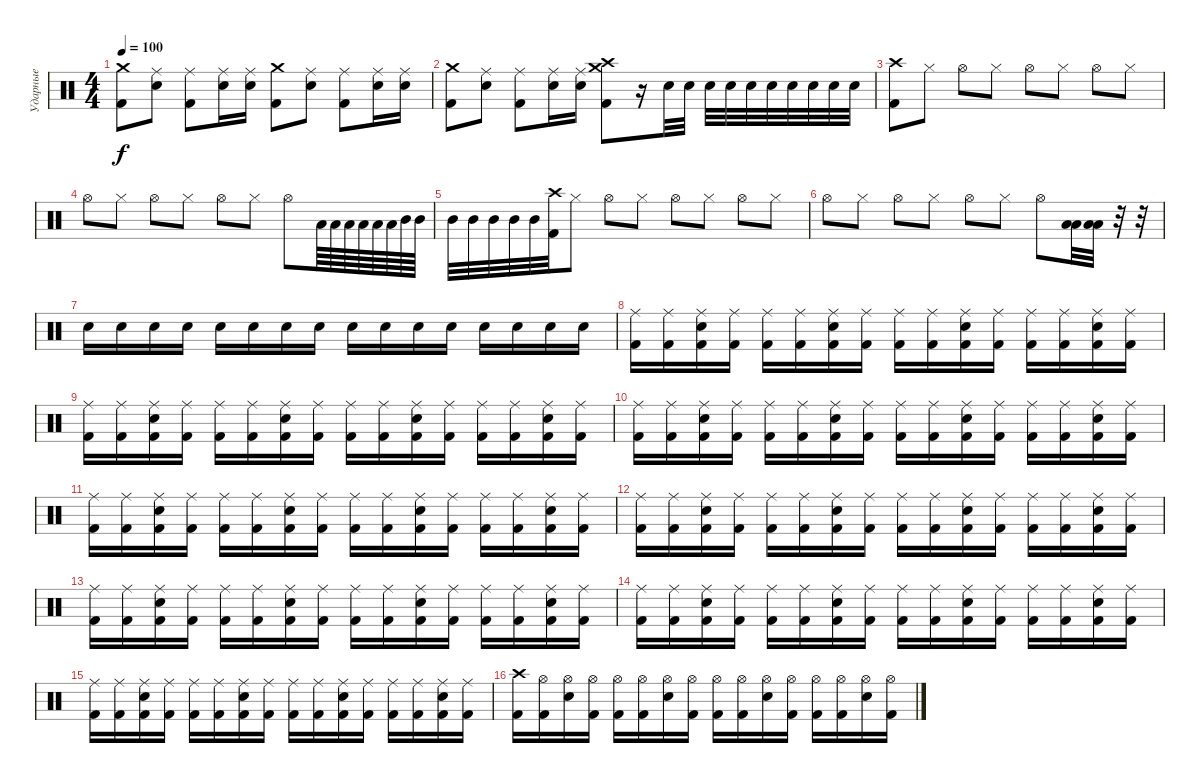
\track ("Ударные" "Ударные") {instrument percussion}
\staff {score}
\articulation defaults
\ts (4 4)
\tempo 100
\clef neutral
\ks c
("Kick (hit) 2" "Crash medium (hit)").8{dy f} ("Electric Snare (hit)" "Ride (middle)").8 ("Kick (hit) 2" "Ride (middle)").8 ("Electric Snare (hit)" "Ride (middle)").16 ("Electric Snare (hit)" "Ride (middle)").16 ("Kick (hit) 2" "Crash medium (hit)").8 ("Electric Snare (hit)" "Ride (middle)").8 ("Kick (hit) 2" "Ride (middle)").8 ("Electric Snare (hit)" "Ride (middle)").16 ("Electric Snare (hit)" "Ride (middle)").16 |
("Kick (hit) 2" "Crash medium (hit)").8 ("Electric Snare (hit)" "Ride (middle)").8 ("Kick (hit) 2" "Ride (middle)").8 ("Electric Snare (hit)" "Ride (middle)").16 ("Electric Snare (hit)" "Ride (middle)").16 ("Kick (hit) 2" "Crash high (hit)" "Crash medium (hit)").8 r.16 "Electric Snare (hit)".32 "Electric Snare (hit)".32 "Electric Snare (hit)".32 "Electric Snare (hit)".32 "Electric Snare (hit)".32 "Electric Snare (hit)".32 "Electric Snare (hit)".32 "Electric Snare (hit)".32 "Electric Snare (hit)".32 "Electric Snare (hit)".32 |
("Crash high (hit)" "Kick (hit) 2").8 "Hi-Hat (closed)".8 "Hi-Hat (open)".8 "Hi-Hat (closed)".8 "Hi-Hat (open)".8 "Hi-Hat (closed)".8 "Hi-Hat (open)".8 "Hi-Hat (closed)".8 |
"Hi-Hat (open)".8 "Hi-Hat (closed)".8 "Hi-Hat (open)".8 "Hi-Hat (closed)".8 "Hi-Hat (open)".8 "Hi-Hat (closed)".8 "Hi-Hat (open)".8 "Low Tom (hit)".64 "Low Tom (hit)".64 "Low Tom (hit)".64 "Low Tom (hit)".64 "Low Tom (hit)".64 "Low Tom (hit)".64 "Mid Tom (hit)".64 "Mid Tom (hit)".64 |
"Mid Tom (hit)".32 "Mid Tom (hit)".32 "Mid Tom (hit)".32 "Mid Tom (hit)".32 "Mid Tom (hit)".32 ("Kick (hit) 2" "Crash high (hit)").32 "Hi-Hat (closed)".8 "Hi-Hat (open)".8 "Hi-Hat (closed)".8 "Hi-Hat (open)".8 "Hi-Hat (closed)".8 "Hi-Hat (open)".8 "Hi-Hat (closed)".8 |
"Hi-Hat (open)".8 "Hi-Hat (closed)".8 "Hi-Hat (open)".8 "Hi-Hat (closed)".8 "Hi-Hat (open)".8 "Hi-Hat (closed)".8 "Hi-Hat (open)".8 ("Low Tom (hit)" "Low Tom (hit)").32 ("Low Tom (hit)" "Low Tom (hit)").32 r.32 r.32 |
"Electric Snare (hit)".16 "Electric Snare (hit)".16 "Electric Snare (hit)".16 "Electric Snare (hit)".16 "Electric Snare (hit)".16 "Electric Snare (hit)".16 "Electric Snare (hit)".16 "Electric Snare (hit)".16 "Electric Snare (hit)".16 "Electric Snare (hit)".16 "Electric Snare (hit)".16 "Electric Snare (hit)".16 "Electric Snare (hit)".16 "Electric Snare (hit)".16 "Electric Snare (hit)".16 "Electric Snare (hit)".16 |
("Kick (hit) 2" "Ride (middle)").16 ("Kick (hit) 2" "Ride (middle)").16 ("Kick (hit) 2" "Electric Snare (hit)" "Ride (middle)").16 ("Kick (hit) 2" "Ride (middle)").16 ("Kick (hit) 2" "Ride (middle)").16 ("Kick (hit) 2" "Ride (middle)").16 ("Kick (hit) 2" "Electric Snare (hit)" "Ride (middle)").16 ("Kick (hit) 2" "Ride (middle)").16 ("Kick (hit) 2" "Ride (middle)").16 ("Kick (hit) 2" "Ride (middle)").16 ("Kick (hit) 2" "Electric Snare (hit)" "Ride (middle)").16 ("Kick (hit) 2" "Ride (middle)").16 ("Kick (hit) 2" "Ride (middle)").16 ("Kick (hit) 2" "Ride (middle)").16 ("Kick (hit) 2" "Electric Snare (hit)" "Ride (middle)").16 ("Kick (hit) 2" "Ride (middle)").16 |
("Kick (hit) 2" "Ride (middle)").16 ("Kick (hit) 2" "Ride (middle)").16 ("Kick (hit) 2" "Electric Snare (hit)" "Ride (middle)").16 ("Kick (hit) 2" "Ride (middle)").16 ("Kick (hit) 2" "Ride (middle)").16 ("Kick (hit) 2" "Ride (middle)").16 ("Kick (hit) 2" "Electric Snare (hit)" "Ride (middle)").16 ("Kick (hit) 2" "Ride (middle)").16 ("Kick (hit) 2" "Ride (middle)").16 ("Kick (hit) 2" "Ride (middle)").16 ("Kick (hit) 2" "Electric Snare (hit)" "Ride (middle)").16 ("Kick (hit) 2" "Ride (middle)").16 ("Kick (hit) 2" "Ride (middle)").16 ("Kick (hit) 2" "Ride (middle)").16 ("Kick (hit) 2" "Electric Snare (hit)" "Ride (middle)").16 ("Kick (hit) 2" "Ride (middle)").16 |
("Kick (hit) 2" "Ride (middle)").16 ("Kick (hit) 2" "Ride (middle)").16 ("Kick (hit) 2" "Electric Snare (hit)" "Ride (middle)").16 ("Kick (hit) 2" "Ride (middle)").16 ("Kick (hit) 2" "Ride (middle)").16 ("Kick (hit) 2" "Ride (middle)").16 ("Kick (hit) 2" "Electric Snare (hit)" "Ride (middle)").16 ("Kick (hit) 2" "Ride (middle)").16 ("Kick (hit) 2" "Ride (middle)").16 ("Kick (hit) 2" "Ride (middle)").16 ("Kick (hit) 2" "Electric Snare (hit)" "Ride (middle)").16 ("Kick (hit) 2" "Ride (middle)").16 ("Kick (hit) 2" "Ride (middle)").16 ("Kick (hit) 2" "Ride (middle)").16 ("Kick (hit) 2" "Electric Snare (hit)" "Ride (middle)").16 ("Kick (hit) 2" "Ride (middle)").16 |
("Kick (hit) 2" "Ride (middle)").16 ("Kick (hit) 2" "Ride (middle)").16 ("Kick (hit) 2" "Electric Snare (hit)" "Ride (middle)").16 ("Kick (hit) 2" "Ride (middle)").16 ("Kick (hit) 2" "Ride (middle)").16 ("Kick (hit) 2" "Ride (middle)").16 ("Kick (hit) 2" "Electric Snare (hit)" "Ride (middle)").16 ("Kick (hit) 2" "Ride (middle)").16 ("Kick (hit) 2" "Ride (middle)").16 ("Kick (hit) 2" "Ride (middle)").16 ("Kick (hit) 2" "Electric Snare (hit)" "Ride (middle)").16 ("Kick (hit) 2" "Ride (middle)").16 ("Kick (hit) 2" "Ride (middle)").16 ("Kick (hit) 2" "Ride (middle)").16 ("Kick (hit) 2" "Electric Snare (hit)" "Ride (middle)").16 ("Kick (hit) 2" "Ride (middle)").16 |
("Kick (hit) 2" "Ride (middle)").16 ("Kick (hit) 2" "Ride (middle)").16 ("Kick (hit) 2" "Electric Snare (hit)" "Ride (middle)").16 ("Kick (hit) 2" "Ride (middle)").16 ("Kick (hit) 2" "Ride (middle)").16 ("Kick (hit) 2" "Ride (middle)").16 ("Kick (hit) 2" "Electric Snare (hit)" "Ride (middle)").16 ("Kick (hit) 2" "Ride (middle)").16 ("Kick (hit) 2" "Ride (middle)").16 ("Kick (hit) 2" "Ride (middle)").16 ("Kick (hit) 2" "Electric Snare (hit)" "Ride (middle)").16 ("Kick (hit) 2" "Ride (middle)").16 ("Kick (hit) 2" "Ride (middle)").16 ("Kick (hit) 2" "Ride (middle)").16 ("Kick (hit) 2" "Electric Snare (hit)" "Ride (middle)").16 ("Kick (hit) 2" "Ride (middle)").16 |
("Kick (hit) 2" "Ride (middle)").16 ("Kick (hit) 2" "Ride (middle)").16 ("Kick (hit) 2" "Electric Snare (hit)" "Ride (middle)").16 ("Kick (hit) 2" "Ride (middle)").16 ("Kick (hit) 2" "Ride (middle)").16 ("Kick (hit) 2" "Ride (middle)").16 ("Kick (hit) 2" "Electric Snare (hit)" "Ride (middle)").16 ("Kick (hit) 2" "Ride (middle)").16 ("Kick (hit) 2" "Ride (middle)").16 ("Kick (hit) 2" "Ride (middle)").16 ("Kick (hit) 2" "Electric Snare (hit)" "Ride (middle)").16 ("Kick (hit) 2" "Ride (middle)").16 ("Kick (hit) 2" "Ride (middle)").16 ("Kick (hit) 2" "Ride (middle)").16 ("Kick (hit) 2" "Electric Snare (hit)" "Ride (middle)").16 ("Kick (hit) 2" "Ride (middle)").16 |
("Kick (hit) 2" "Ride (middle)").16 ("Kick (hit) 2" "Ride (middle)").16 ("Kick (hit) 2" "Electric Snare (hit)" "Ride (middle)").16 ("Kick (hit) 2" "Ride (middle)").16 ("Kick (hit) 2" "Ride (middle)").16 ("Kick (hit) 2" "Ride (middle)").16 ("Kick (hit) 2" "Electric Snare (hit)" "Ride (middle)").16 ("Kick (hit) 2" "Ride (middle)").16 ("Kick (hit) 2" "Ride (middle)").16 ("Kick (hit) 2" "Ride (middle)").16 ("Kick (hit) 2" "Electric Snare (hit)" "Ride (middle)").16 ("Kick (hit) 2" "Ride (middle)").16 ("Kick (hit) 2" "Ride (middle)").16 ("Kick (hit) 2" "Ride (middle)").16 ("Kick (hit) 2" "Electric Snare (hit)" "Ride (middle)").16 ("Kick (hit) 2" "Ride (middle)").16 |
("Kick (hit) 2" "Ride (middle)").16 ("Kick (hit) 2" "Ride (middle)").16 ("Kick (hit) 2" "Electric Snare (hit)" "Ride (middle)").16 ("Kick (hit) 2" "Ride (middle)").16 ("Kick (hit) 2" "Ride (middle)").16 ("Kick (hit) 2" "Ride (middle)").16 ("Kick (hit) 2" "Electric Snare (hit)" "Ride (middle)").16 ("Kick (hit) 2" "Ride (middle)").16 ("Kick (hit) 2" "Ride (middle)").16 ("Kick (hit) 2" "Ride (middle)").16 ("Kick (hit) 2" "Electric Snare (hit)" "Ride (middle)").16 ("Kick (hit) 2" "Ride (middle)").16 ("Kick (hit) 2" "Ride (middle)").16 ("Kick (hit) 2" "Ride (middle)").16 ("Kick (hit) 2" "Electric Snare (hit)" "Ride (middle)").16 ("Kick (hit) 2" "Ride (middle)").16 |
("Kick (hit) 2" "Crash high (hit)").16 ("Kick (hit) 2" "Hi-Hat (open)").16 ("Electric Snare (hit)" "Hi-Hat (open)").16 ("Kick (hit) 2" "Hi-Hat (open)").16 ("Kick (hit) 2" "Hi-Hat (open)").16 ("Kick (hit) 2" "Hi-Hat (open)").16 ("Electric Snare (hit)" "Hi-Hat (open)").16 ("Kick (hit) 2" "Hi-Hat (open)").16 ("Kick (hit) 2" "Hi-Hat (open)").16 ("Kick (hit) 2" "Hi-Hat (open)").16 ("Electric Snare (hit)" "Hi-Hat (open)").16 ("Kick (hit) 2" "Hi-Hat (open)").16 ("Kick (hit) 2" "Hi-Hat (open)").16 ("Kick (hit) 2" "Hi-Hat (open)").16 ("Electric Snare (hit)" "Hi-Hat (open)").16 ("Kick (hit) 2" "Hi-Hat (open)").16
